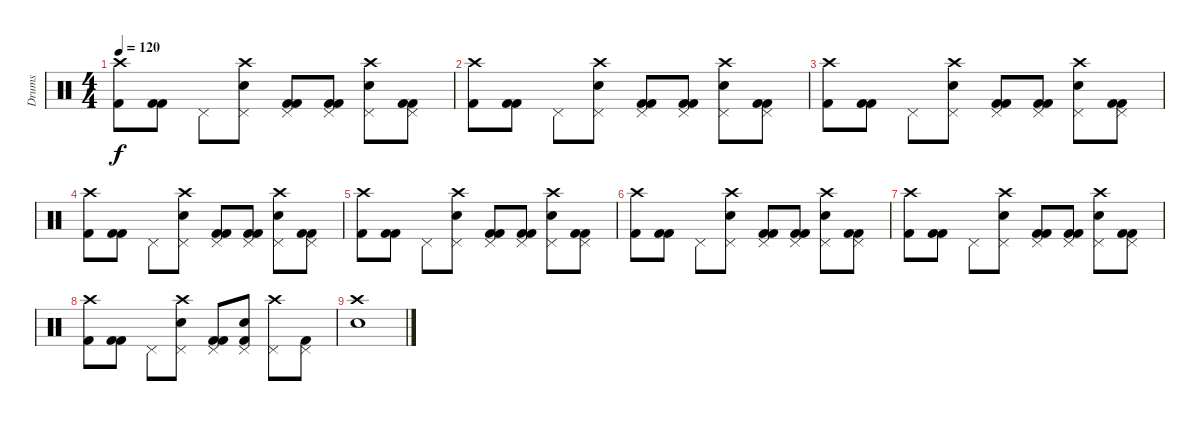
\track ("Drums" "Drums") {instrument percussion}
\staff {score}
\articulation defaults
\ts (4 4)
\tempo 120
\clef neutral
\ks c
("Kick (hit) 2" "Crash high (hit)").8{dy f} ("Kick (hit) 2" "Kick (hit) 2").8 "Pedal Hi-Hat (hit)".8 ("Crash high (hit)" "Snare (hit) 2" "Pedal Hi-Hat (hit)").8 ("Kick (hit) 2" "Kick (hit) 2" "Pedal Hi-Hat (hit)").8 ("Kick (hit) 2" "Kick (hit) 2" "Pedal Hi-Hat (hit)").8 ("Crash high (hit)" "Snare (hit) 2" "Pedal Hi-Hat (hit)").8 ("Kick (hit) 2" "Kick (hit) 2" "Pedal Hi-Hat (hit)").8 |
("Kick (hit) 2" "Crash high (hit)").8 ("Kick (hit) 2" "Kick (hit) 2").8 "Pedal Hi-Hat (hit)".8 ("Crash high (hit)" "Snare (hit) 2" "Pedal Hi-Hat (hit)").8 ("Kick (hit) 2" "Kick (hit) 2" "Pedal Hi-Hat (hit)").8 ("Kick (hit) 2" "Kick (hit) 2" "Pedal Hi-Hat (hit)").8 ("Crash high (hit)" "Snare (hit) 2" "Pedal Hi-Hat (hit)").8 ("Kick (hit) 2" "Kick (hit) 2" "Pedal Hi-Hat (hit)").8 |
("Kick (hit) 2" "Crash high (hit)").8 ("Kick (hit) 2" "Kick (hit) 2").8 "Pedal Hi-Hat (hit)".8 ("Crash high (hit)" "Snare (hit) 2" "Pedal Hi-Hat (hit)").8 ("Kick (hit) 2" "Kick (hit) 2" "Pedal Hi-Hat (hit)").8 ("Kick (hit) 2" "Kick (hit) 2" "Pedal Hi-Hat (hit)").8 ("Crash high (hit)" "Snare (hit) 2" "Pedal Hi-Hat (hit)").8 ("Kick (hit) 2" "Kick (hit) 2" "Pedal Hi-Hat (hit)").8 |
("Kick (hit) 2" "Crash high (hit)").8 ("Kick (hit) 2" "Kick (hit) 2").8 "Pedal Hi-Hat (hit)".8 ("Crash high (hit)" "Snare (hit) 2" "Pedal Hi-Hat (hit)").8 ("Kick (hit) 2" "Kick (hit) 2" "Pedal Hi-Hat (hit)").8 ("Kick (hit) 2" "Kick (hit) 2" "Pedal Hi-Hat (hit)").8 ("Crash high (hit)" "Snare (hit) 2" "Pedal Hi-Hat (hit)").8 ("Kick (hit) 2" "Kick (hit) 2" "Pedal Hi-Hat (hit)").8 |
("Kick (hit) 2" "Crash high (hit)").8 ("Kick (hit) 2" "Kick (hit) 2").8 "Pedal Hi-Hat (hit)".8 ("Crash high (hit)" "Snare (hit) 2" "Pedal Hi-Hat (hit)").8 ("Kick (hit) 2" "Kick (hit) 2" "Pedal Hi-Hat (hit)").8 ("Kick (hit) 2" "Kick (hit) 2" "Pedal Hi-Hat (hit)").8 ("Crash high (hit)" "Snare (hit) 2" "Pedal Hi-Hat (hit)").8 ("Kick (hit) 2" "Kick (hit) 2" "Pedal Hi-Hat (hit)").8 |
("Kick (hit) 2" "Crash high (hit)").8 ("Kick (hit) 2" "Kick (hit) 2").8 "Pedal Hi-Hat (hit)".8 ("Crash high (hit)" "Snare (hit) 2" "Pedal Hi-Hat (hit)").8 ("Kick (hit) 2" "Kick (hit) 2" "Pedal Hi-Hat (hit)").8 ("Kick (hit) 2" "Kick (hit) 2" "Pedal Hi-Hat (hit)").8 ("Crash high (hit)" "Snare (hit) 2" "Pedal Hi-Hat (hit)").8 ("Kick (hit) 2" "Kick (hit) 2" "Pedal Hi-Hat (hit)").8 |
("Kick (hit) 2" "Crash high (hit)").8 ("Kick (hit) 2" "Kick (hit) 2").8 "Pedal Hi-Hat (hit)".8 ("Crash high (hit)" "Snare (hit) 2" "Pedal Hi-Hat (hit)").8 ("Kick (hit) 2" "Kick (hit) 2" "Pedal Hi-Hat (hit)").8 ("Kick (hit) 2" "Kick (hit) 2" "Pedal Hi-Hat (hit)").8 ("Crash high (hit)" "Snare (hit) 2" "Pedal Hi-Hat (hit)").8 ("Kick (hit) 2" "Kick (hit) 2" "Pedal Hi-Hat (hit)").8 |
("Kick (hit) 2" "Crash high (hit)").8 ("Kick (hit) 2" "Kick (hit) 2").8 "Pedal Hi-Hat (hit)".8 ("Crash high (hit)" "Snare (hit) 2" "Pedal Hi-Hat (hit)").8 ("Kick (hit) 2" "Kick (hit) 2" "Pedal Hi-Hat (hit)").8 ("Kick (hit) 2" "Snare (hit) 2" "Pedal Hi-Hat (hit)").8 ("Crash high (hit)" "Pedal Hi-Hat (hit)").8 ("Kick (hit) 2" "Pedal Hi-Hat (hit)").8 |
("Crash high (hit)" "Snare (hit) 2").1
